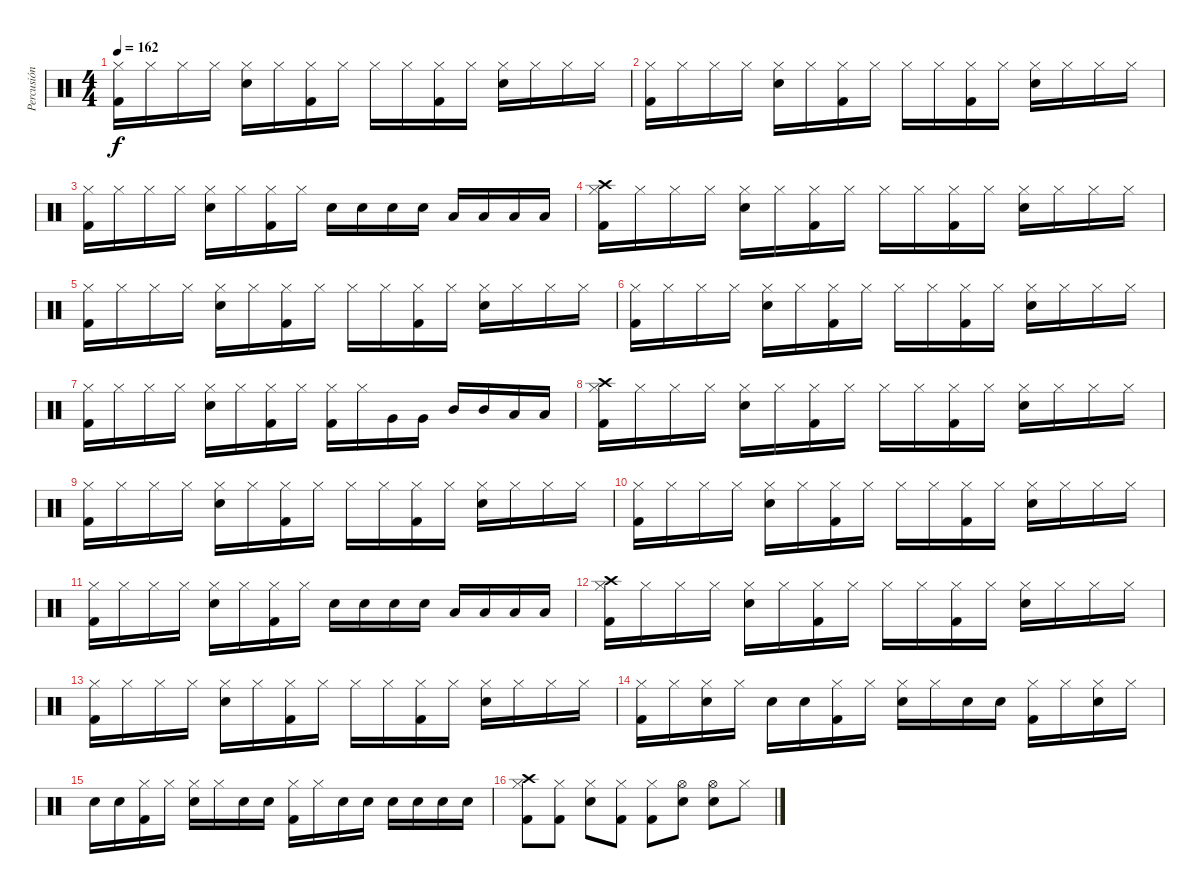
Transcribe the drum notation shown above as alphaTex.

\track ("Percusión" "Percusión") {instrument percussion}
\staff {score}
\articulation defaults
\ts (4 4)
\tempo 162
\clef neutral
\ks c
("Hi-Hat (closed)" "Kick (hit) 2").16{dy f} "Hi-Hat (closed)".16 "Hi-Hat (closed)".16 "Hi-Hat (closed)".16 ("Hi-Hat (closed)" "Snare (hit) 2").16 "Hi-Hat (closed)".16 ("Hi-Hat (closed)" "Kick (hit) 2").16 "Hi-Hat (closed)".16 "Hi-Hat (closed)".16 "Hi-Hat (closed)".16 ("Hi-Hat (closed)" "Kick (hit) 2").16 "Hi-Hat (closed)".16 ("Hi-Hat (closed)" "Snare (hit) 2").16 "Hi-Hat (closed)".16 "Hi-Hat (closed)".16 "Hi-Hat (closed)".16 |
("Hi-Hat (closed)" "Kick (hit) 2").16 "Hi-Hat (closed)".16 "Hi-Hat (closed)".16 "Hi-Hat (closed)".16 ("Hi-Hat (closed)" "Snare (hit) 2").16 "Hi-Hat (closed)".16 ("Hi-Hat (closed)" "Kick (hit) 2").16 "Hi-Hat (closed)".16 "Hi-Hat (closed)".16 "Hi-Hat (closed)".16 ("Hi-Hat (closed)" "Kick (hit) 2").16 "Hi-Hat (closed)".16 ("Hi-Hat (closed)" "Snare (hit) 2").16 "Hi-Hat (closed)".16 "Hi-Hat (closed)".16 "Hi-Hat (closed)".16 |
("Hi-Hat (closed)" "Kick (hit) 2").16 "Hi-Hat (closed)".16 "Hi-Hat (closed)".16 "Hi-Hat (closed)".16 ("Hi-Hat (closed)" "Snare (hit) 2").16 "Hi-Hat (closed)".16 ("Hi-Hat (closed)" "Kick (hit) 2").16 "Hi-Hat (closed)".16 "Snare (hit) 2".16 "Snare (hit) 2".16 "Snare (hit) 2".16 "Snare (hit) 2".16 "Low Tom (hit)".16 "Low Tom (hit)".16 "Low Tom (hit)".16 "Low Tom (hit)".16 |
("Crash high (hit)" "Hi-Hat (closed)" "Kick (hit) 2").16 "Hi-Hat (closed)".16 "Hi-Hat (closed)".16 "Hi-Hat (closed)".16 ("Hi-Hat (closed)" "Snare (hit) 2").16 "Hi-Hat (closed)".16 ("Hi-Hat (closed)" "Kick (hit) 2").16 "Hi-Hat (closed)".16 "Hi-Hat (closed)".16 "Hi-Hat (closed)".16 ("Hi-Hat (closed)" "Kick (hit) 2").16 "Hi-Hat (closed)".16 ("Hi-Hat (closed)" "Snare (hit) 2").16 "Hi-Hat (closed)".16 "Hi-Hat (closed)".16 "Hi-Hat (closed)".16 |
("Hi-Hat (closed)" "Kick (hit) 2").16 "Hi-Hat (closed)".16 "Hi-Hat (closed)".16 "Hi-Hat (closed)".16 ("Hi-Hat (closed)" "Snare (hit) 2").16 "Hi-Hat (closed)".16 ("Hi-Hat (closed)" "Kick (hit) 2").16 "Hi-Hat (closed)".16 "Hi-Hat (closed)".16 "Hi-Hat (closed)".16 ("Hi-Hat (closed)" "Kick (hit) 2").16 "Hi-Hat (closed)".16 ("Hi-Hat (closed)" "Snare (hit) 2").16 "Hi-Hat (closed)".16 "Hi-Hat (closed)".16 "Hi-Hat (closed)".16 |
("Hi-Hat (closed)" "Kick (hit) 2").16 "Hi-Hat (closed)".16 "Hi-Hat (closed)".16 "Hi-Hat (closed)".16 ("Hi-Hat (closed)" "Snare (hit) 2").16 "Hi-Hat (closed)".16 ("Hi-Hat (closed)" "Kick (hit) 2").16 "Hi-Hat (closed)".16 "Hi-Hat (closed)".16 "Hi-Hat (closed)".16 ("Hi-Hat (closed)" "Kick (hit) 2").16 "Hi-Hat (closed)".16 ("Hi-Hat (closed)" "Snare (hit) 2").16 "Hi-Hat (closed)".16 "Hi-Hat (closed)".16 "Hi-Hat (closed)".16 |
("Hi-Hat (closed)" "Kick (hit) 2").16 "Hi-Hat (closed)".16 "Hi-Hat (closed)".16 "Hi-Hat (closed)".16 ("Hi-Hat (closed)" "Snare (hit) 2").16 "Hi-Hat (closed)".16 ("Hi-Hat (closed)" "Kick (hit) 2").16 "Hi-Hat (closed)".16 ("Hi-Hat (closed)" "Kick (hit) 2").16 "Hi-Hat (closed)".16 "Very Low Tom (hit)".16 "Very Low Tom (hit)".16 "Mid Tom (hit)".16 "Mid Tom (hit)".16 "Low Tom (hit)".16 "Low Tom (hit)".16 |
("Crash high (hit)" "Hi-Hat (closed)" "Kick (hit) 2").16 "Hi-Hat (closed)".16 "Hi-Hat (closed)".16 "Hi-Hat (closed)".16 ("Hi-Hat (closed)" "Snare (hit) 2").16 "Hi-Hat (closed)".16 ("Hi-Hat (closed)" "Kick (hit) 2").16 "Hi-Hat (closed)".16 "Hi-Hat (closed)".16 "Hi-Hat (closed)".16 ("Hi-Hat (closed)" "Kick (hit) 2").16 "Hi-Hat (closed)".16 ("Hi-Hat (closed)" "Snare (hit) 2").16 "Hi-Hat (closed)".16 "Hi-Hat (closed)".16 "Hi-Hat (closed)".16 |
("Hi-Hat (closed)" "Kick (hit) 2").16 "Hi-Hat (closed)".16 "Hi-Hat (closed)".16 "Hi-Hat (closed)".16 ("Hi-Hat (closed)" "Snare (hit) 2").16 "Hi-Hat (closed)".16 ("Hi-Hat (closed)" "Kick (hit) 2").16 "Hi-Hat (closed)".16 "Hi-Hat (closed)".16 "Hi-Hat (closed)".16 ("Hi-Hat (closed)" "Kick (hit) 2").16 "Hi-Hat (closed)".16 ("Hi-Hat (closed)" "Snare (hit) 2").16 "Hi-Hat (closed)".16 "Hi-Hat (closed)".16 "Hi-Hat (closed)".16 |
("Hi-Hat (closed)" "Kick (hit) 2").16 "Hi-Hat (closed)".16 "Hi-Hat (closed)".16 "Hi-Hat (closed)".16 ("Hi-Hat (closed)" "Snare (hit) 2").16 "Hi-Hat (closed)".16 ("Hi-Hat (closed)" "Kick (hit) 2").16 "Hi-Hat (closed)".16 "Hi-Hat (closed)".16 "Hi-Hat (closed)".16 ("Hi-Hat (closed)" "Kick (hit) 2").16 "Hi-Hat (closed)".16 ("Hi-Hat (closed)" "Snare (hit) 2").16 "Hi-Hat (closed)".16 "Hi-Hat (closed)".16 "Hi-Hat (closed)".16 |
("Hi-Hat (closed)" "Kick (hit) 2").16 "Hi-Hat (closed)".16 "Hi-Hat (closed)".16 "Hi-Hat (closed)".16 ("Hi-Hat (closed)" "Snare (hit) 2").16 "Hi-Hat (closed)".16 ("Hi-Hat (closed)" "Kick (hit) 2").16 "Hi-Hat (closed)".16 "Snare (hit) 2".16 "Snare (hit) 2".16 "Snare (hit) 2".16 "Snare (hit) 2".16 "Low Tom (hit)".16 "Low Tom (hit)".16 "Low Tom (hit)".16 "Low Tom (hit)".16 |
("Crash high (hit)" "Hi-Hat (closed)" "Kick (hit) 2").16 "Hi-Hat (closed)".16 "Hi-Hat (closed)".16 "Hi-Hat (closed)".16 ("Hi-Hat (closed)" "Snare (hit) 2").16 "Hi-Hat (closed)".16 ("Hi-Hat (closed)" "Kick (hit) 2").16 "Hi-Hat (closed)".16 "Hi-Hat (closed)".16 "Hi-Hat (closed)".16 ("Hi-Hat (closed)" "Kick (hit) 2").16 "Hi-Hat (closed)".16 ("Hi-Hat (closed)" "Snare (hit) 2").16 "Hi-Hat (closed)".16 "Hi-Hat (closed)".16 "Hi-Hat (closed)".16 |
("Hi-Hat (closed)" "Kick (hit) 2").16 "Hi-Hat (closed)".16 "Hi-Hat (closed)".16 "Hi-Hat (closed)".16 ("Hi-Hat (closed)" "Snare (hit) 2").16 "Hi-Hat (closed)".16 ("Hi-Hat (closed)" "Kick (hit) 2").16 "Hi-Hat (closed)".16 "Hi-Hat (closed)".16 "Hi-Hat (closed)".16 ("Hi-Hat (closed)" "Kick (hit) 2").16 "Hi-Hat (closed)".16 ("Hi-Hat (closed)" "Snare (hit) 2").16 "Hi-Hat (closed)".16 "Hi-Hat (closed)".16 "Hi-Hat (closed)".16 |
("Hi-Hat (closed)" "Kick (hit) 2").16 "Hi-Hat (closed)".16 ("Hi-Hat (closed)" "Snare (hit) 2").16 "Hi-Hat (closed)".16 "Snare (hit) 2".16 "Snare (hit) 2".16 ("Hi-Hat (closed)" "Kick (hit) 2").16 "Hi-Hat (closed)".16 ("Hi-Hat (closed)" "Snare (hit) 2").16 "Hi-Hat (closed)".16 "Snare (hit) 2".16 "Snare (hit) 2".16 ("Hi-Hat (closed)" "Kick (hit) 2").16 "Hi-Hat (closed)".16 ("Hi-Hat (closed)" "Snare (hit) 2").16 "Hi-Hat (closed)".16 |
"Snare (hit) 2".16 "Snare (hit) 2".16 ("Hi-Hat (closed)" "Kick (hit) 2").16 "Hi-Hat (closed)".16 ("Hi-Hat (closed)" "Snare (hit) 2").16 "Hi-Hat (closed)".16 "Snare (hit) 2".16 "Snare (hit) 2".16 ("Hi-Hat (closed)" "Kick (hit) 2").16 "Hi-Hat (closed)".16 "Snare (hit) 2".16 "Snare (hit) 2".16 "Snare (hit) 2".16 "Snare (hit) 2".16 "Snare (hit) 2".16 "Snare (hit) 2".16 |
("Crash high (hit)" "Hi-Hat (closed)" "Kick (hit) 2").8 ("Hi-Hat (closed)" "Kick (hit) 2").8 ("Hi-Hat (closed)" "Snare (hit) 2").8 ("Hi-Hat (closed)" "Kick (hit) 2").8 ("Hi-Hat (closed)" "Kick (hit) 2").8 ("Hi-Hat (open)" "Snare (hit) 2").8 ("Hi-Hat (open)" "Snare (hit) 2").8 "Hi-Hat (closed)".8
